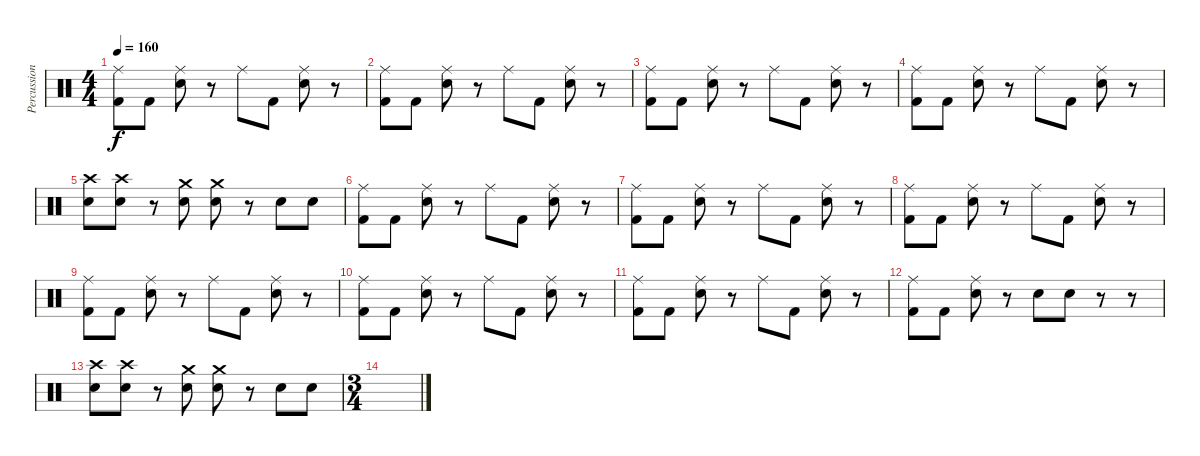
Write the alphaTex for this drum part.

\track ("Percussion" "Percussion") {instrument percussion}
\staff {score}
\articulation defaults
\ts (4 4)
\tempo 160
\clef neutral
\ks c
("Ride (middle)" "Kick (hit) 2").8{dy f} "Kick (hit) 2".8 ("Ride (middle)" "Electric Snare (hit)").8 r.8 "Ride (middle)".8 "Kick (hit) 2".8 ("Ride (middle)" "Electric Snare (hit)").8 r.8 |
("Ride (middle)" "Kick (hit) 2").8 "Kick (hit) 2".8 ("Ride (middle)" "Electric Snare (hit)").8 r.8 "Ride (middle)".8 "Kick (hit) 2".8 ("Ride (middle)" "Electric Snare (hit)").8 r.8 |
("Ride (middle)" "Kick (hit) 2").8 "Kick (hit) 2".8 ("Ride (middle)" "Electric Snare (hit)").8 r.8 "Ride (middle)".8 "Kick (hit) 2".8 ("Ride (middle)" "Electric Snare (hit)").8 r.8 |
("Ride (middle)" "Kick (hit) 2").8 "Kick (hit) 2".8 ("Ride (middle)" "Electric Snare (hit)").8 r.8 "Ride (middle)".8 "Kick (hit) 2".8 ("Ride (middle)" "Electric Snare (hit)").8 r.8 |
("Crash high (hit)" "Electric Snare (hit)").8 ("Crash high (hit)" "Electric Snare (hit)").8 r.8 ("Crash medium (hit)" "Electric Snare (hit)").8 ("Crash medium (hit)" "Electric Snare (hit)").8 r.8 "Electric Snare (hit)".8 "Electric Snare (hit)".8 |
("Ride (middle)" "Kick (hit) 2").8 "Kick (hit) 2".8 ("Ride (middle)" "Electric Snare (hit)").8 r.8 "Ride (middle)".8 "Kick (hit) 2".8 ("Ride (middle)" "Electric Snare (hit)").8 r.8 |
("Ride (middle)" "Kick (hit) 2").8 "Kick (hit) 2".8 ("Ride (middle)" "Electric Snare (hit)").8 r.8 "Ride (middle)".8 "Kick (hit) 2".8 ("Ride (middle)" "Electric Snare (hit)").8 r.8 |
("Ride (middle)" "Kick (hit) 2").8 "Kick (hit) 2".8 ("Ride (middle)" "Electric Snare (hit)").8 r.8 "Ride (middle)".8 "Kick (hit) 2".8 ("Ride (middle)" "Electric Snare (hit)").8 r.8 |
("Ride (middle)" "Kick (hit) 2").8 "Kick (hit) 2".8 ("Ride (middle)" "Electric Snare (hit)").8 r.8 "Ride (middle)".8 "Kick (hit) 2".8 ("Ride (middle)" "Electric Snare (hit)").8 r.8 |
("Ride (middle)" "Kick (hit) 2").8 "Kick (hit) 2".8 ("Ride (middle)" "Electric Snare (hit)").8 r.8 "Ride (middle)".8 "Kick (hit) 2".8 ("Ride (middle)" "Electric Snare (hit)").8 r.8 |
("Ride (middle)" "Kick (hit) 2").8 "Kick (hit) 2".8 ("Ride (middle)" "Electric Snare (hit)").8 r.8 "Ride (middle)".8 "Kick (hit) 2".8 ("Ride (middle)" "Electric Snare (hit)").8 r.8 |
("Ride (middle)" "Kick (hit) 2").8 "Kick (hit) 2".8 ("Ride (middle)" "Electric Snare (hit)").8 r.8 "Electric Snare (hit)".8 "Electric Snare (hit)".8 r.8 r.8 |
("Crash high (hit)" "Electric Snare (hit)").8 ("Crash high (hit)" "Electric Snare (hit)").8 r.8 ("Crash medium (hit)" "Electric Snare (hit)").8 ("Crash medium (hit)" "Electric Snare (hit)").8 r.8 "Electric Snare (hit)".8 "Electric Snare (hit)".8 |
\ts (3 4)
